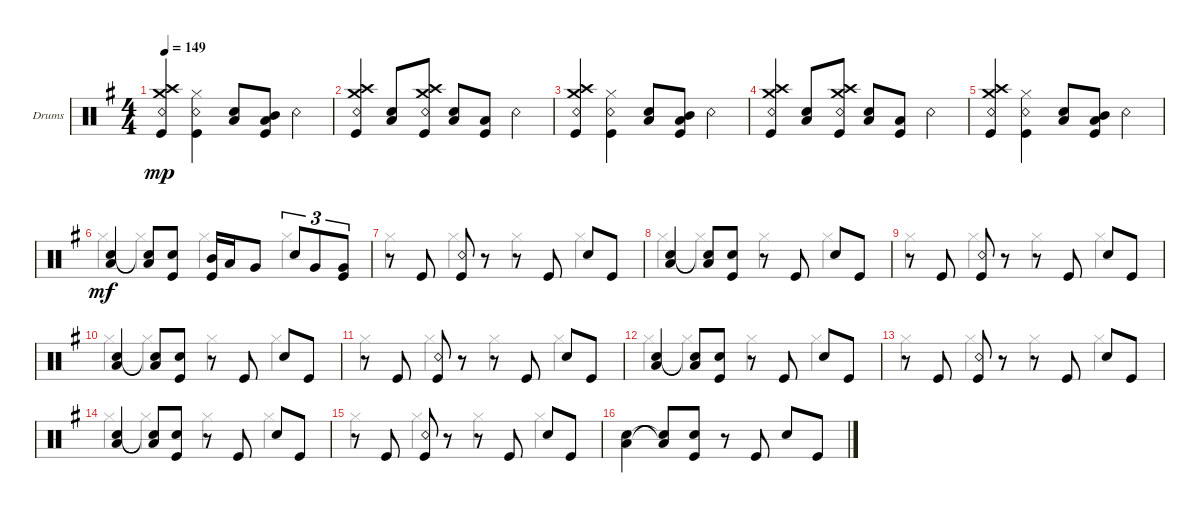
\defaultSystemsLayout 4
\bracketExtendMode groupsimilarinstruments
\firstSystemTrackNameOrientation horizontal
\otherSystemsTrackNameOrientation horizontal
\track ("Drumkit" "Drums") {instrument percussion}
\staff {score}
\articulation defaults
\voice
\ts (4 4)
\tempo 149
\clef neutral
\ks eminor
("Kick (hit)" "Crash high (hit)" "Crash medium (hit)" "Snare (rim shot)").4{dy mp} ("Snare (rim shot)" "Hi-Hat (closed)" "Kick (hit)").4 ("Snare (hit) 2" "Low Tom (hit)").8 ("Kick (hit)" "Low Tom (hit)" "Mid Tom (hit)").8 "Snare (rim shot)".4 |
("Kick (hit)" "Crash high (hit)" "Crash medium (hit)" "Snare (rim shot)").4 ("Low Tom (hit)" "Snare (hit) 2").8 ("Kick (hit)" "Snare (rim shot)" "Crash medium (hit)" "Crash high (hit)").8 ("Snare (hit) 2" "Low Tom (hit)").8 ("Kick (hit)" "Low Tom (hit)").8 "Snare (rim shot)".4 |
("Kick (hit)" "Crash high (hit)" "Crash medium (hit)" "Snare (rim shot)").4 ("Snare (rim shot)" "Hi-Hat (closed)" "Kick (hit)").4 ("Snare (hit) 2" "Low Tom (hit)").8 ("Kick (hit)" "Low Tom (hit)" "Mid Tom (hit)").8 "Snare (rim shot)".4 |
("Kick (hit)" "Crash high (hit)" "Crash medium (hit)" "Snare (rim shot)").4 ("Low Tom (hit)" "Snare (hit) 2").8 ("Kick (hit)" "Snare (rim shot)" "Crash medium (hit)" "Crash high (hit)").8 ("Snare (hit) 2" "Low Tom (hit)").8 ("Kick (hit)" "Low Tom (hit)").8 "Snare (rim shot)".4 |
("Kick (hit)" "Crash high (hit)" "Crash medium (hit)" "Snare (rim shot)").4 ("Snare (rim shot)" "Hi-Hat (closed)" "Kick (hit)").4 ("Snare (hit) 2" "Low Tom (hit)").8 ("Kick (hit)" "Low Tom (hit)" "Mid Tom (hit)").8 "Snare (rim shot)".4 |
("Snare (hit) 2" "Low Tom (hit)").4{dy mf} ("Low Tom (hit)"{t} "Snare (hit) 2"{t}).8 ("Snare (hit) 2" "Kick (hit)").8 ("Mid Tom (hit)" "Kick (hit)").16 "Low Tom (hit)".16 "Very Low Tom (hit)".8 "Snare (hit) 2".8{tu (3 2)} "Very Low Tom (hit)".8{tu (3 2)} ("Very Low Tom (hit)" "Kick (hit)").8{tu (3 2)} |
r.8 "Kick (hit)".8 ("Kick (hit)" "Snare (rim shot)").8 r.8 r.8 "Kick (hit)".8 "Snare (hit) 2".8 "Kick (hit)".8 |
("Snare (hit) 2" "Low Tom (hit)").4 ("Low Tom (hit)"{t} "Snare (hit) 2"{t}).8 ("Snare (hit) 2" "Kick (hit)").8 r.8 "Kick (hit)".8 "Snare (hit) 2".8 "Kick (hit)".8 |
r.8 "Kick (hit)".8 ("Kick (hit)" "Snare (rim shot)").8 r.8 r.8 "Kick (hit)".8 "Snare (hit) 2".8 "Kick (hit)".8 |
("Snare (hit) 2" "Low Tom (hit)").4 ("Low Tom (hit)"{t} "Snare (hit) 2"{t}).8 ("Snare (hit) 2" "Kick (hit)").8 r.8 "Kick (hit)".8 "Snare (hit) 2".8 "Kick (hit)".8 |
r.8 "Kick (hit)".8 ("Kick (hit)" "Snare (rim shot)").8 r.8 r.8 "Kick (hit)".8 "Snare (hit) 2".8 "Kick (hit)".8 |
("Snare (hit) 2" "Low Tom (hit)").4 ("Low Tom (hit)"{t} "Snare (hit) 2"{t}).8 ("Snare (hit) 2" "Kick (hit)").8 r.8 "Kick (hit)".8 "Snare (hit) 2".8 "Kick (hit)".8 |
r.8 "Kick (hit)".8 ("Kick (hit)" "Snare (rim shot)").8 r.8 r.8 "Kick (hit)".8 "Snare (hit) 2".8 "Kick (hit)".8 |
("Snare (hit) 2" "Low Tom (hit)").4 ("Low Tom (hit)"{t} "Snare (hit) 2"{t}).8 ("Snare (hit) 2" "Kick (hit)").8 r.8 "Kick (hit)".8 "Snare (hit) 2".8 "Kick (hit)".8 |
r.8 "Kick (hit)".8 ("Kick (hit)" "Snare (rim shot)").8 r.8 r.8 "Kick (hit)".8 "Snare (hit) 2".8 "Kick (hit)".8 |
("Snare (hit) 2" "Low Tom (hit)").4 ("Low Tom (hit)"{t} "Snare (hit) 2"{t}).8 ("Snare (hit) 2" "Kick (hit)").8 r.8 "Kick (hit)".8 "Snare (hit) 2".8 "Kick (hit)".8
\voice
\clef neutral
\ottava regular
\simile none
\ks eminor
|
|
|
|
|
"Hi-Hat (closed)".4{dy mf} "Hi-Hat (closed)".4 "Hi-Hat (closed)".4 "Hi-Hat (closed)".4 |
"Hi-Hat (closed)".4 "Hi-Hat (closed)".4 "Hi-Hat (closed)".4 "Hi-Hat (closed)".4 |
"Hi-Hat (closed)".4 "Hi-Hat (closed)".4 "Hi-Hat (closed)".4 "Hi-Hat (closed)".4 |
"Hi-Hat (closed)".4 "Hi-Hat (closed)".4 "Hi-Hat (closed)".4 "Hi-Hat (closed)".4 |
"Hi-Hat (closed)".4 "Hi-Hat (closed)".4 "Hi-Hat (closed)".4 "Hi-Hat (closed)".4 |
"Hi-Hat (closed)".4 "Hi-Hat (closed)".4 "Hi-Hat (closed)".4 "Hi-Hat (closed)".4 |
"Hi-Hat (closed)".4 "Hi-Hat (closed)".4 "Hi-Hat (closed)".4 "Hi-Hat (closed)".4 |
"Hi-Hat (closed)".4 "Hi-Hat (closed)".4 "Hi-Hat (closed)".4 "Hi-Hat (closed)".4 |
"Hi-Hat (closed)".4 "Hi-Hat (closed)".4 "Hi-Hat (closed)".4 "Hi-Hat (closed)".4 |
"Hi-Hat (closed)".4 "Hi-Hat (closed)".4 "Hi-Hat (closed)".4 "Hi-Hat (closed)".4 |
